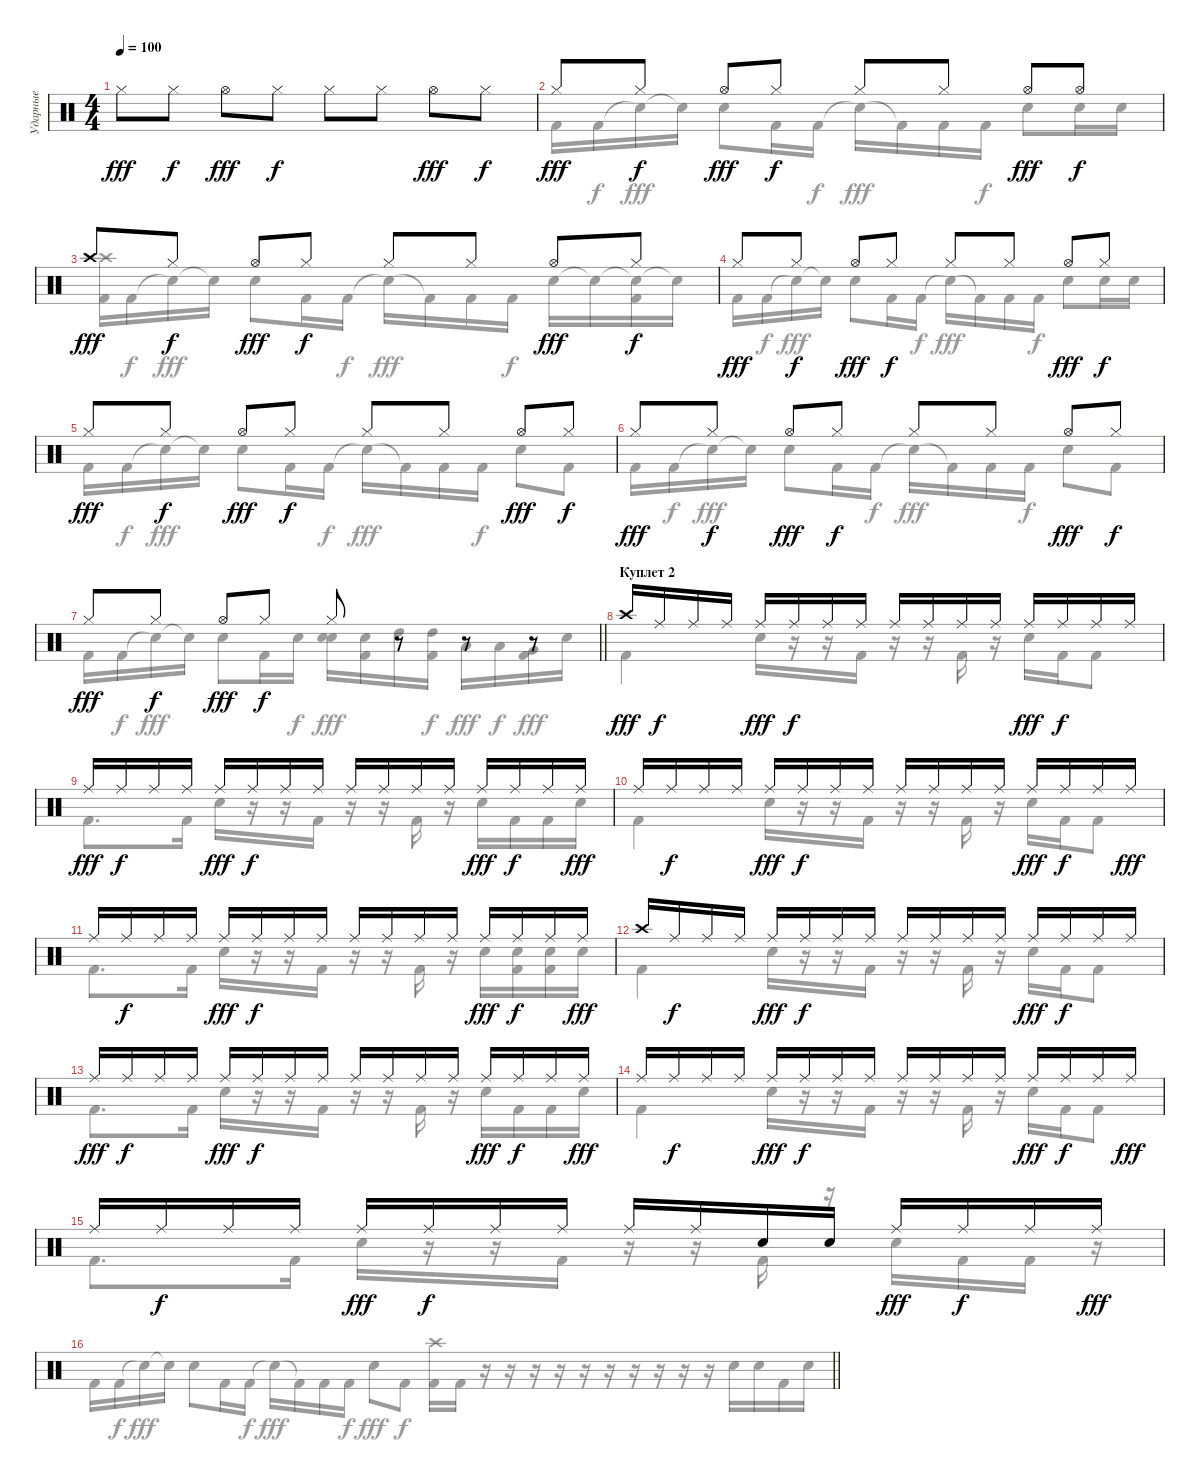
\track ("Ударные" "Ударные") {instrument percussion}
\staff {score}
\articulation defaults
\voice
\ts (4 4)
\tempo 100
\clef neutral
\ks c "Hi-Hat (closed)".8{dy fff} "Hi-Hat (closed)".8{dy f} "Hi-Hat (open)".8{dy fff} "Hi-Hat (closed)".8{dy f} "Hi-Hat (closed)".8 "Hi-Hat (closed)".8 "Hi-Hat (open)".8{dy fff} "Hi-Hat (closed)".8{dy f}
|
"Hi-Hat (closed)".8{dy fff} "Hi-Hat (closed)".8{dy f} "Hi-Hat (open)".8{dy fff} "Hi-Hat (closed)".8{dy f} "Hi-Hat (closed)".8 "Hi-Hat (closed)".8 "Hi-Hat (open)".8{dy fff} "Hi-Hat (open)".8{dy f} |
"Crash high (hit)".8{dy fff} "Hi-Hat (closed)".8{dy f} "Hi-Hat (open)".8{dy fff} "Hi-Hat (closed)".8{dy f} "Hi-Hat (closed)".8 "Hi-Hat (closed)".8 "Hi-Hat (open)".8{dy fff} "Hi-Hat (closed)".8{dy f} |
"Hi-Hat (closed)".8{dy fff} "Hi-Hat (closed)".8{dy f} "Hi-Hat (open)".8{dy fff} "Hi-Hat (closed)".8{dy f} "Hi-Hat (closed)".8 "Hi-Hat (closed)".8 "Hi-Hat (open)".8{dy fff} "Hi-Hat (closed)".8{dy f} |
"Hi-Hat (closed)".8{dy fff} "Hi-Hat (closed)".8{dy f} "Hi-Hat (open)".8{dy fff} "Hi-Hat (closed)".8{dy f} "Hi-Hat (closed)".8 "Hi-Hat (closed)".8 "Hi-Hat (open)".8{dy fff} "Hi-Hat (closed)".8{dy f} |
"Hi-Hat (closed)".8{dy fff} "Hi-Hat (closed)".8{dy f} "Hi-Hat (open)".8{dy fff} "Hi-Hat (closed)".8{dy f} "Hi-Hat (closed)".8 "Hi-Hat (closed)".8 "Hi-Hat (open)".8{dy fff} "Hi-Hat (closed)".8{dy f} |
\barLineRight lightlight "Hi-Hat (closed)".8{dy fff} "Hi-Hat (closed)".8{dy f} "Hi-Hat (open)".8{dy fff} "Hi-Hat (closed)".8{dy f} "Hi-Hat (closed)".8
r.8 r.8 r.8 |
\section ("" "Куплет 2")
"Crash high (hit)".16{dy fff} "Ride (middle)".16{dy f} "Ride (middle)".16 "Ride (middle)".16 "Ride (middle)".16{dy fff} "Ride (middle)".16{dy f} "Ride (middle)".16 "Ride (middle)".16 "Ride (middle)".16 "Ride (middle)".16 "Ride (middle)".16 "Ride (middle)".16 "Ride (middle)".16{dy fff} "Ride (middle)".16{dy f} "Ride (middle)".16 "Ride (middle)".16 |
"Ride (middle)".16{dy fff} "Ride (middle)".16{dy f} "Ride (middle)".16 "Ride (middle)".16 "Ride (middle)".16{dy fff} "Ride (middle)".16{dy f} "Ride (middle)".16 "Ride (middle)".16 "Ride (middle)".16 "Ride (middle)".16 "Ride (middle)".16 "Ride (middle)".16 "Ride (middle)".16{dy fff} "Ride (middle)".16{dy f} "Ride (middle)".16 "Ride (middle)".16{dy fff} |
"Ride (middle)".16 "Ride (middle)".16{dy f} "Ride (middle)".16 "Ride (middle)".16 "Ride (middle)".16{dy fff} "Ride (middle)".16{dy f} "Ride (middle)".16 "Ride (middle)".16 "Ride (middle)".16 "Ride (middle)".16 "Ride (middle)".16 "Ride (middle)".16 "Ride (middle)".16{dy fff} "Ride (middle)".16{dy f} "Ride (middle)".16 "Ride (middle)".16{dy fff} |
"Ride (middle)".16 "Ride (middle)".16{dy f} "Ride (middle)".16 "Ride (middle)".16 "Ride (middle)".16{dy fff} "Ride (middle)".16{dy f} "Ride (middle)".16 "Ride (middle)".16 "Ride (middle)".16 "Ride (middle)".16 "Ride (middle)".16 "Ride (middle)".16 "Ride (middle)".16{dy fff} "Ride (middle)".16{dy f} "Ride (middle)".16 "Ride (middle)".16{dy fff} |
"Crash high (hit)".16 "Ride (middle)".16{dy f} "Ride (middle)".16 "Ride (middle)".16 "Ride (middle)".16{dy fff} "Ride (middle)".16{dy f} "Ride (middle)".16 "Ride (middle)".16 "Ride (middle)".16 "Ride (middle)".16 "Ride (middle)".16 "Ride (middle)".16 "Ride (middle)".16{dy fff} "Ride (middle)".16{dy f} "Ride (middle)".16 "Ride (middle)".16 |
"Ride (middle)".16{dy fff} "Ride (middle)".16{dy f} "Ride (middle)".16 "Ride (middle)".16 "Ride (middle)".16{dy fff} "Ride (middle)".16{dy f} "Ride (middle)".16 "Ride (middle)".16 "Ride (middle)".16 "Ride (middle)".16 "Ride (middle)".16 "Ride (middle)".16 "Ride (middle)".16{dy fff} "Ride (middle)".16{dy f} "Ride (middle)".16 "Ride (middle)".16{dy fff} |
"Ride (middle)".16 "Ride (middle)".16{dy f} "Ride (middle)".16 "Ride (middle)".16 "Ride (middle)".16{dy fff} "Ride (middle)".16{dy f} "Ride (middle)".16 "Ride (middle)".16 "Ride (middle)".16 "Ride (middle)".16 "Ride (middle)".16 "Ride (middle)".16 "Ride (middle)".16{dy fff} "Ride (middle)".16{dy f} "Ride (middle)".16 "Ride (middle)".16{dy fff} |
"Ride (middle)".16 "Ride (middle)".16{dy f} "Ride (middle)".16 "Ride (middle)".16 "Ride (middle)".16{dy fff} "Ride (middle)".16{dy f} "Ride (middle)".16 "Ride (middle)".16 "Ride (middle)".16 "Ride (middle)".16 "Snare (hit)".16 "Snare (hit)".16 "Ride (middle)".16{dy fff} "Ride (middle)".16{dy f} "Ride (middle)".16 "Ride (middle)".16{dy fff} |
\barLineRight lightlight
\voice
\clef neutral
\ottava regular
\simile none
\ks c "Kick (hit) 2".16{dy fff} "Kick (hit) 2".16{dy f} "Snare (hit)"{t}.16{dy fff} "Snare (hit)"{t}.16 "Snare (hit) 2".8 "Kick (hit) 2".16 "Kick (hit) 2".16{dy f} "Snare (hit)"{t}.16{dy fff} "Kick (hit) 2"{t}.16 "Kick (hit) 2".16 "Kick (hit) 2".16{dy f} "Snare (hit) 2".8{dy fff} "Kick (hit) 2".8{dy f}
|
"Kick (hit) 2".16{dy fff} "Kick (hit) 2".16{dy f} "Snare (hit)"{t}.16{dy fff} "Snare (hit)"{t}.16 "Snare (hit) 2".8 "Kick (hit) 2".16 "Kick (hit) 2".16{dy f} "Snare (hit)"{t}.16{dy fff} "Kick (hit) 2"{t}.16 "Kick (hit) 2".16 "Kick (hit) 2".16{dy f} "Snare (hit) 2".8{dy fff} "Snare (hit) 2".16 "Snare (hit) 2".16 |
("Crash high (hit)" "Kick (hit) 2").16 "Kick (hit) 2".16{dy f} "Snare (hit)"{t}.16{dy fff} "Snare (hit)"{t}.16 "Snare (hit) 2".8 "Kick (hit) 2".16 "Kick (hit) 2".16{dy f} "Snare (hit)"{t}.16{dy fff} "Kick (hit) 2"{t}.16 "Kick (hit) 2".16 "Kick (hit) 2".16{dy f} "Snare (hit) 2".16{dy fff} "Snare (hit) 2"{t}.16 ("Snare (hit) 2"{t} "Kick (hit) 2").16 "Snare (hit) 2"{t}.16 |
"Kick (hit) 2".16 "Kick (hit) 2".16{dy f} "Snare (hit)"{t}.16{dy fff} "Snare (hit)"{t}.16 "Snare (hit) 2".8 "Kick (hit) 2".16 "Kick (hit) 2".16{dy f} "Snare (hit)"{t}.16{dy fff} "Kick (hit) 2"{t}.16 "Kick (hit) 2".16 "Kick (hit) 2".16{dy f} "Snare (hit) 2".8{dy fff} "Snare (hit) 2".16 "Snare (hit) 2".16 |
"Kick (hit) 2".16 "Kick (hit) 2".16{dy f} "Snare (hit)"{t}.16{dy fff} "Snare (hit)"{t}.16 "Snare (hit) 2".8 "Kick (hit) 2".16 "Kick (hit) 2".16{dy f} "Snare (hit)"{t}.16{dy fff} "Kick (hit) 2"{t}.16 "Kick (hit) 2".16 "Kick (hit) 2".16{dy f} "Snare (hit) 2".8{dy fff} "Kick (hit) 2".8{dy f} |
"Kick (hit) 2".16{dy fff} "Kick (hit) 2".16{dy f} "Snare (hit)"{t}.16{dy fff} "Snare (hit)"{t}.16 "Snare (hit) 2".8 "Kick (hit) 2".16 "Kick (hit) 2".16{dy f} "Snare (hit)"{t}.16{dy fff} "Kick (hit) 2"{t}.16 "Kick (hit) 2".16 "Kick (hit) 2".16{dy f} "Snare (hit) 2".8{dy fff} "Kick (hit) 2".8{dy f} |
\barLineRight lightlight "Kick (hit) 2".16{dy fff} "Kick (hit) 2".16{dy f} "Snare (hit)"{t}.16{dy fff} "Snare (hit)"{t}.16 "Snare (hit) 2".8 "Kick (hit) 2".16 "Snare (hit) 2".16{dy f}
("Snare (hit) 2" "Snare (hit)").16{dy fff} ("Snare (hit) 2" "Kick (hit) 2").16 "High Tom (hit)".16 ("High Tom (hit)" "Kick (hit) 2").16{dy f} "Low Tom (hit)".16{dy fff} "Low Tom (hit)".16{dy f} ("Very Low Tom (hit)" "Kick (hit) 2").16{dy fff} "Snare (hit) 2".16 |
"Kick (hit) 2".4 "Snare (hit) 2".16 r.16 r.16 "Kick (hit) 2".16 r.16 r.16 "Kick (hit) 2".16 r.16 "Snare (hit) 2".16 "Kick (hit) 2".16 "Kick (hit) 2".8 |
"Kick (hit) 2".8{d} "Kick (hit) 2".16 "Snare (hit) 2".16 r.16 r.16 "Kick (hit) 2".16 r.16 r.16 "Kick (hit) 2".16 r.16 "Snare (hit) 2".16 "Kick (hit) 2".16 "Kick (hit) 2".16 "Snare (hit) 2".16 |
"Kick (hit) 2".4 "Snare (hit) 2".16 r.16 r.16 "Kick (hit) 2".16 r.16 r.16 "Kick (hit) 2".16 r.16 "Snare (hit) 2".16 "Kick (hit) 2".16 "Kick (hit) 2".8 |
"Kick (hit) 2".8{d} "Kick (hit) 2".16 "Snare (hit) 2".16 r.16 r.16 "Kick (hit) 2".16 r.16 r.16 "Kick (hit) 2".16 r.16 "Snare (hit) 2".16 ("Snare (hit) 2" "Kick (hit) 2").16 ("Snare (hit) 2" "Kick (hit) 2").16 "Snare (hit) 2".16 |
"Kick (hit) 2".4 "Snare (hit) 2".16 r.16 r.16 "Kick (hit) 2".16 r.16 r.16 "Kick (hit) 2".16 r.16 "Snare (hit) 2".16 "Kick (hit) 2".16 "Kick (hit) 2".8 |
"Kick (hit) 2".8{d} "Kick (hit) 2".16 "Snare (hit) 2".16 r.16 r.16 "Kick (hit) 2".16 r.16 r.16 "Kick (hit) 2".16 r.16 "Snare (hit) 2".16 "Kick (hit) 2".16 "Kick (hit) 2".16 "Snare (hit) 2".16 |
"Kick (hit) 2".4 "Snare (hit) 2".16 r.16 r.16 "Kick (hit) 2".16 r.16 r.16 "Kick (hit) 2".16 r.16 "Snare (hit) 2".16 "Kick (hit) 2".16 "Kick (hit) 2".8 |
"Kick (hit) 2".8{d} "Kick (hit) 2".16 "Snare (hit) 2".16 r.16 r.16 "Kick (hit) 2".16 r.16 r.16 "Kick (hit) 2".16 r.16 "Snare (hit) 2".16 "Kick (hit) 2".16 "Kick (hit) 2".16 r.16 |
\barLineRight lightlight
("Crash high (hit)" "Kick (hit) 2").16{dy f} "Kick (hit) 2".16 r.16 r.16 r.16 r.16 r.16 r.16 r.16 r.16 r.16 r.16 "Snare (hit) 2".16 "Snare (hit) 2".16 "Kick (hit) 2".16 "Snare (hit) 2".16
